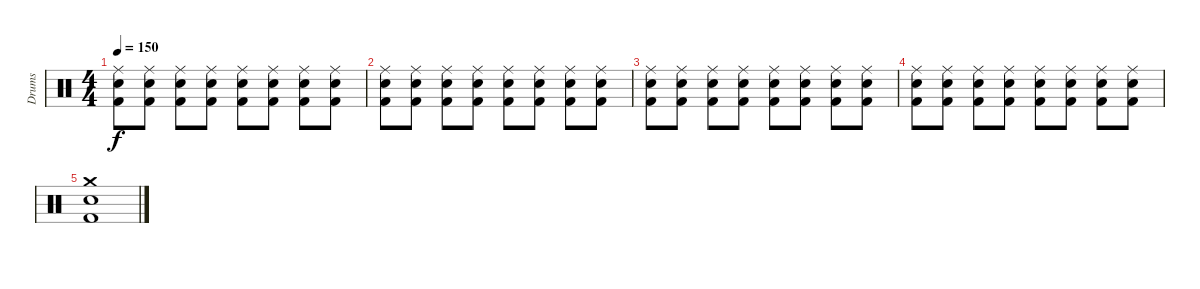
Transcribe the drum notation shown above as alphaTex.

\track ("Drums" "Drums") {instrument percussion}
\staff {score}
\articulation defaults
\ts (4 4)
\tempo 150
\clef neutral
\ks c
("Ride (middle)" "Electric Snare (hit)" "Kick (hit) 2").8{dy f} ("Ride (middle)" "Electric Snare (hit)" "Kick (hit) 2").8 ("Ride (middle)" "Electric Snare (hit)" "Kick (hit) 2").8 ("Ride (middle)" "Electric Snare (hit)" "Kick (hit) 2").8 ("Ride (middle)" "Electric Snare (hit)" "Kick (hit) 2").8 ("Ride (middle)" "Electric Snare (hit)" "Kick (hit) 2").8 ("Ride (middle)" "Electric Snare (hit)" "Kick (hit) 2").8 ("Ride (middle)" "Electric Snare (hit)" "Kick (hit) 2").8 |
("Ride (middle)" "Electric Snare (hit)" "Kick (hit) 2").8 ("Ride (middle)" "Electric Snare (hit)" "Kick (hit) 2").8 ("Ride (middle)" "Electric Snare (hit)" "Kick (hit) 2").8 ("Ride (middle)" "Electric Snare (hit)" "Kick (hit) 2").8 ("Ride (middle)" "Electric Snare (hit)" "Kick (hit) 2").8 ("Ride (middle)" "Electric Snare (hit)" "Kick (hit) 2").8 ("Ride (middle)" "Electric Snare (hit)" "Kick (hit) 2").8 ("Ride (middle)" "Electric Snare (hit)" "Kick (hit) 2").8 |
("Ride (middle)" "Electric Snare (hit)" "Kick (hit) 2").8 ("Ride (middle)" "Electric Snare (hit)" "Kick (hit) 2").8 ("Ride (middle)" "Electric Snare (hit)" "Kick (hit) 2").8 ("Ride (middle)" "Electric Snare (hit)" "Kick (hit) 2").8 ("Ride (middle)" "Electric Snare (hit)" "Kick (hit) 2").8 ("Ride (middle)" "Electric Snare (hit)" "Kick (hit) 2").8 ("Ride (middle)" "Electric Snare (hit)" "Kick (hit) 2").8 ("Ride (middle)" "Electric Snare (hit)" "Kick (hit) 2").8 |
("Ride (middle)" "Electric Snare (hit)" "Kick (hit) 2").8 ("Ride (middle)" "Electric Snare (hit)" "Kick (hit) 2").8 ("Ride (middle)" "Electric Snare (hit)" "Kick (hit) 2").8 ("Ride (middle)" "Electric Snare (hit)" "Kick (hit) 2").8 ("Ride (middle)" "Electric Snare (hit)" "Kick (hit) 2").8 ("Ride (middle)" "Electric Snare (hit)" "Kick (hit) 2").8 ("Ride (middle)" "Electric Snare (hit)" "Kick (hit) 2").8 ("Ride (middle)" "Electric Snare (hit)" "Kick (hit) 2").8 |
("Crash medium (hit)" "Electric Snare (hit)" "Kick (hit) 2").1
